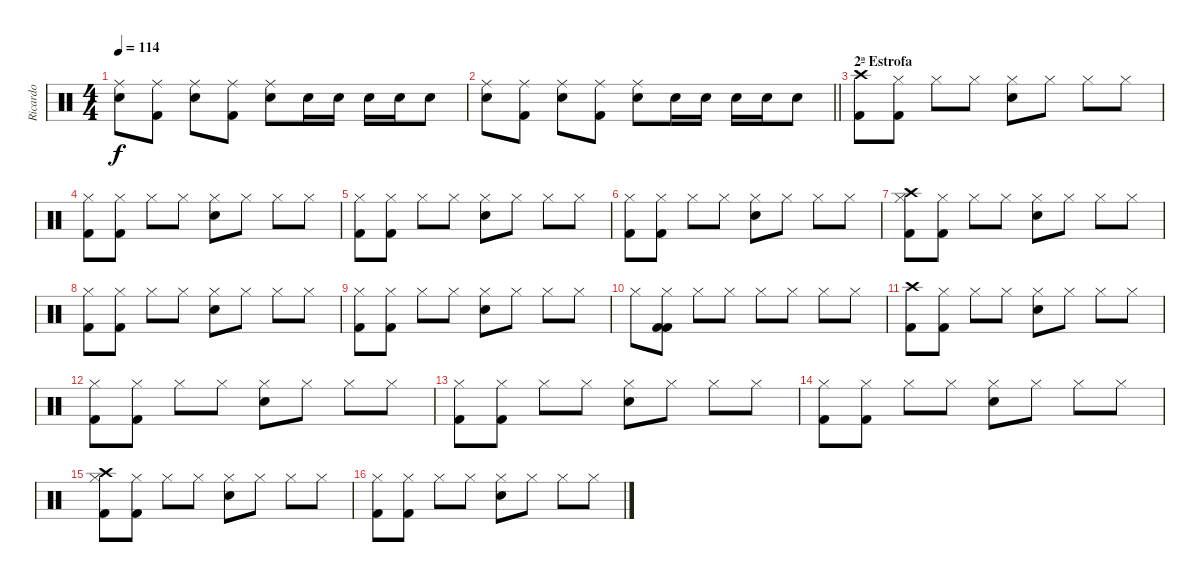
\track ("Ricardo" "Ricardo") {instrument percussion}
\staff {score}
\articulation defaults
\ts (4 4)
\tempo 114
\clef neutral
\ks c
("Ride (middle)" "Snare (hit) 2").8{dy f} ("Ride (middle)" "Kick (hit) 2").8 ("Ride (middle)" "Snare (hit) 2").8 ("Ride (middle)" "Kick (hit) 2").8 ("Ride (middle)" "Snare (hit) 2").8 "Snare (hit) 2".16 "Snare (hit) 2".16 "Snare (hit) 2".16 "Snare (hit) 2".16 "Snare (hit) 2".8 |
\barLineRight lightlight
("Ride (middle)" "Snare (hit) 2").8 ("Ride (middle)" "Kick (hit) 2").8 ("Ride (middle)" "Snare (hit) 2").8 ("Ride (middle)" "Kick (hit) 2").8 ("Ride (middle)" "Snare (hit) 2").8 "Snare (hit) 2".16 "Snare (hit) 2".16 "Snare (hit) 2".16 "Snare (hit) 2".16 "Snare (hit) 2".8 |
\section ("" "2ª Estrofa")
("Crash high (hit)" "Kick (hit) 2").8 ("Hi-Hat (closed)" "Kick (hit) 2").8 "Hi-Hat (closed)".8 "Hi-Hat (closed)".8 ("Hi-Hat (closed)" "Snare (hit) 2").8 "Hi-Hat (closed)".8 "Hi-Hat (closed)".8 "Hi-Hat (closed)".8 |
("Hi-Hat (closed)" "Kick (hit) 2").8 ("Hi-Hat (closed)" "Kick (hit) 2").8 "Hi-Hat (closed)".8 "Hi-Hat (closed)".8 ("Hi-Hat (closed)" "Snare (hit) 2").8 "Hi-Hat (closed)".8 "Hi-Hat (closed)".8 "Hi-Hat (closed)".8 |
("Hi-Hat (closed)" "Kick (hit) 2").8 ("Hi-Hat (closed)" "Kick (hit) 2").8 "Hi-Hat (closed)".8 "Hi-Hat (closed)".8 ("Hi-Hat (closed)" "Snare (hit) 2").8 "Hi-Hat (closed)".8 "Hi-Hat (closed)".8 "Hi-Hat (closed)".8 |
("Hi-Hat (closed)" "Kick (hit) 2").8 ("Hi-Hat (closed)" "Kick (hit) 2").8 "Hi-Hat (closed)".8 "Hi-Hat (closed)".8 ("Hi-Hat (closed)" "Snare (hit) 2").8 "Hi-Hat (closed)".8 "Hi-Hat (closed)".8 "Hi-Hat (closed)".8 |
("Crash high (hit)" "Hi-Hat (closed)" "Kick (hit) 2").8 ("Hi-Hat (closed)" "Kick (hit) 2").8 "Hi-Hat (closed)".8 "Hi-Hat (closed)".8 ("Hi-Hat (closed)" "Snare (hit) 2").8 "Hi-Hat (closed)".8 "Hi-Hat (closed)".8 "Hi-Hat (closed)".8 |
("Hi-Hat (closed)" "Kick (hit) 2").8 ("Hi-Hat (closed)" "Kick (hit) 2").8 "Hi-Hat (closed)".8 "Hi-Hat (closed)".8 ("Hi-Hat (closed)" "Snare (hit) 2").8 "Hi-Hat (closed)".8 "Hi-Hat (closed)".8 "Hi-Hat (closed)".8 |
("Hi-Hat (closed)" "Kick (hit) 2").8 ("Hi-Hat (closed)" "Kick (hit) 2").8 "Hi-Hat (closed)".8 "Hi-Hat (closed)".8 ("Hi-Hat (closed)" "Snare (hit) 2").8 "Hi-Hat (closed)".8 "Hi-Hat (closed)".8 "Hi-Hat (closed)".8 |
"Hi-Hat (closed)".8 ("Hi-Hat (closed)" "Kick (hit) 2" "Kick (hit) 2").8 "Hi-Hat (closed)".8 "Hi-Hat (closed)".8 "Hi-Hat (closed)".8 "Hi-Hat (closed)".8 "Hi-Hat (closed)".8 "Hi-Hat (closed)".8 |
("Crash high (hit)" "Kick (hit) 2").8 ("Hi-Hat (closed)" "Kick (hit) 2").8 "Hi-Hat (closed)".8 "Hi-Hat (closed)".8 ("Hi-Hat (closed)" "Snare (hit) 2").8 "Hi-Hat (closed)".8 "Hi-Hat (closed)".8 "Hi-Hat (closed)".8 |
("Hi-Hat (closed)" "Kick (hit) 2").8 ("Hi-Hat (closed)" "Kick (hit) 2").8 "Hi-Hat (closed)".8 "Hi-Hat (closed)".8 ("Hi-Hat (closed)" "Snare (hit) 2").8 "Hi-Hat (closed)".8 "Hi-Hat (closed)".8 "Hi-Hat (closed)".8 |
("Hi-Hat (closed)" "Kick (hit) 2").8 ("Hi-Hat (closed)" "Kick (hit) 2").8 "Hi-Hat (closed)".8 "Hi-Hat (closed)".8 ("Hi-Hat (closed)" "Snare (hit) 2").8 "Hi-Hat (closed)".8 "Hi-Hat (closed)".8 "Hi-Hat (closed)".8 |
("Hi-Hat (closed)" "Kick (hit) 2").8 ("Hi-Hat (closed)" "Kick (hit) 2").8 "Hi-Hat (closed)".8 "Hi-Hat (closed)".8 ("Hi-Hat (closed)" "Snare (hit) 2").8 "Hi-Hat (closed)".8 "Hi-Hat (closed)".8 "Hi-Hat (closed)".8 |
("Crash high (hit)" "Hi-Hat (closed)" "Kick (hit) 2").8 ("Hi-Hat (closed)" "Kick (hit) 2").8 "Hi-Hat (closed)".8 "Hi-Hat (closed)".8 ("Hi-Hat (closed)" "Snare (hit) 2").8 "Hi-Hat (closed)".8 "Hi-Hat (closed)".8 "Hi-Hat (closed)".8 |
("Hi-Hat (closed)" "Kick (hit) 2").8 ("Hi-Hat (closed)" "Kick (hit) 2").8 "Hi-Hat (closed)".8 "Hi-Hat (closed)".8 ("Hi-Hat (closed)" "Snare (hit) 2").8 "Hi-Hat (closed)".8 "Hi-Hat (closed)".8 "Hi-Hat (closed)".8
